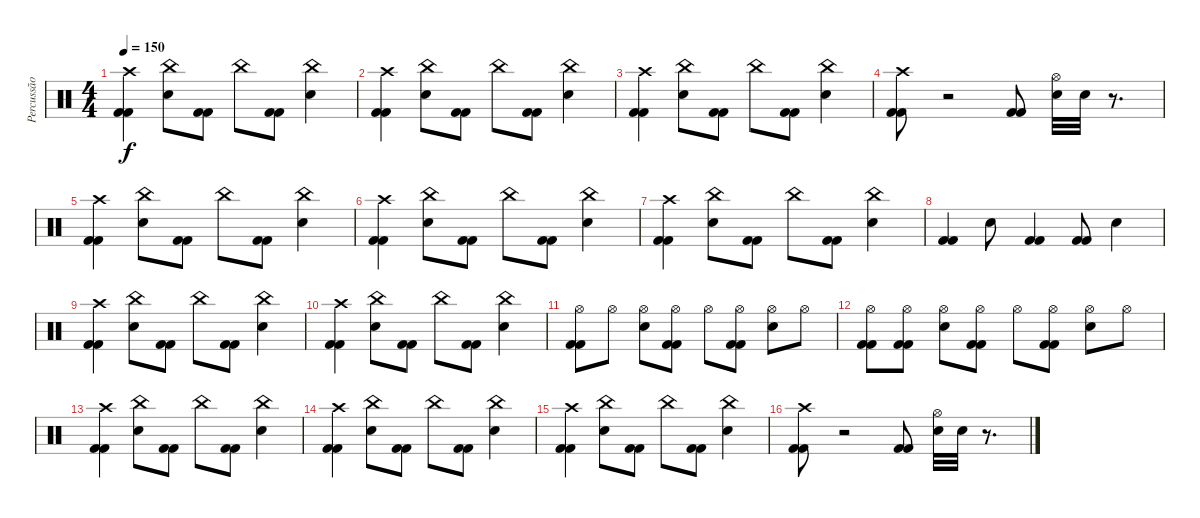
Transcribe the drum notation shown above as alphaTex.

\track ("Percussão" "Percussão") {instrument percussion}
\staff {score}
\articulation defaults
\ts (4 4)
\tempo 150
\clef neutral
\ks c
("Crash high (hit)" "Kick (hit) 2" "Kick (hit) 2").4{dy f} ("China (hit)" "Electric Snare (hit)").8 ("Kick (hit) 2" "Kick (hit) 2").8 "China (hit)".8 ("Kick (hit) 2" "Kick (hit) 2").8 ("China (hit)" "Electric Snare (hit)").4 |
("Crash high (hit)" "Kick (hit) 2" "Kick (hit) 2").4 ("China (hit)" "Electric Snare (hit)").8 ("Kick (hit) 2" "Kick (hit) 2").8 "China (hit)".8 ("Kick (hit) 2" "Kick (hit) 2").8 ("China (hit)" "Electric Snare (hit)").4 |
("Crash high (hit)" "Kick (hit) 2" "Kick (hit) 2").4 ("China (hit)" "Electric Snare (hit)").8 ("Kick (hit) 2" "Kick (hit) 2").8 "China (hit)".8 ("Kick (hit) 2" "Kick (hit) 2").8 ("China (hit)" "Electric Snare (hit)").4 |
("Crash high (hit)" "Kick (hit) 2" "Kick (hit) 2").8 r.2 ("Kick (hit) 2" "Kick (hit) 2").8 ("Hi-Hat (open)" "Electric Snare (hit)").32 "Electric Snare (hit)".32 r.8{d} |
("Crash high (hit)" "Kick (hit) 2" "Kick (hit) 2").4 ("China (hit)" "Electric Snare (hit)").8 ("Kick (hit) 2" "Kick (hit) 2").8 "China (hit)".8 ("Kick (hit) 2" "Kick (hit) 2").8 ("China (hit)" "Electric Snare (hit)").4 |
("Crash high (hit)" "Kick (hit) 2" "Kick (hit) 2").4 ("China (hit)" "Electric Snare (hit)").8 ("Kick (hit) 2" "Kick (hit) 2").8 "China (hit)".8 ("Kick (hit) 2" "Kick (hit) 2").8 ("China (hit)" "Electric Snare (hit)").4 |
("Crash high (hit)" "Kick (hit) 2" "Kick (hit) 2").4 ("China (hit)" "Electric Snare (hit)").8 ("Kick (hit) 2" "Kick (hit) 2").8 "China (hit)".8 ("Kick (hit) 2" "Kick (hit) 2").8 ("China (hit)" "Electric Snare (hit)").4 |
("Kick (hit) 2" "Kick (hit) 2").4 "Electric Snare (hit)".8 ("Kick (hit) 2" "Kick (hit) 2").4 ("Kick (hit) 2" "Kick (hit) 2").8 "Electric Snare (hit)".4 |
("Crash high (hit)" "Kick (hit) 2" "Kick (hit) 2").4 ("China (hit)" "Electric Snare (hit)").8 ("Kick (hit) 2" "Kick (hit) 2").8 "China (hit)".8 ("Kick (hit) 2" "Kick (hit) 2").8 ("China (hit)" "Electric Snare (hit)").4 |
("Crash high (hit)" "Kick (hit) 2" "Kick (hit) 2").4 ("China (hit)" "Electric Snare (hit)").8 ("Kick (hit) 2" "Kick (hit) 2").8 "China (hit)".8 ("Kick (hit) 2" "Kick (hit) 2").8 ("China (hit)" "Electric Snare (hit)").4 |
("Hi-Hat (open)" "Kick (hit) 2" "Kick (hit) 2").8 "Hi-Hat (open)".8 ("Hi-Hat (open)" "Electric Snare (hit)").8 ("Hi-Hat (open)" "Kick (hit) 2" "Kick (hit) 2").8 "Hi-Hat (open)".8 ("Hi-Hat (open)" "Kick (hit) 2" "Kick (hit) 2").8 ("Hi-Hat (open)" "Electric Snare (hit)").8 "Hi-Hat (open)".8 |
("Hi-Hat (open)" "Kick (hit) 2" "Kick (hit) 2").8 ("Hi-Hat (open)" "Kick (hit) 2" "Kick (hit) 2").8 ("Hi-Hat (open)" "Electric Snare (hit)").8 ("Hi-Hat (open)" "Kick (hit) 2" "Kick (hit) 2").8 "Hi-Hat (open)".8 ("Hi-Hat (open)" "Kick (hit) 2" "Kick (hit) 2").8 ("Hi-Hat (open)" "Electric Snare (hit)").8 "Hi-Hat (open)".8 |
("Crash high (hit)" "Kick (hit) 2" "Kick (hit) 2").4 ("China (hit)" "Electric Snare (hit)").8 ("Kick (hit) 2" "Kick (hit) 2").8 "China (hit)".8 ("Kick (hit) 2" "Kick (hit) 2").8 ("China (hit)" "Electric Snare (hit)").4 |
("Crash high (hit)" "Kick (hit) 2" "Kick (hit) 2").4 ("China (hit)" "Electric Snare (hit)").8 ("Kick (hit) 2" "Kick (hit) 2").8 "China (hit)".8 ("Kick (hit) 2" "Kick (hit) 2").8 ("China (hit)" "Electric Snare (hit)").4 |
("Crash high (hit)" "Kick (hit) 2" "Kick (hit) 2").4 ("China (hit)" "Electric Snare (hit)").8 ("Kick (hit) 2" "Kick (hit) 2").8 "China (hit)".8 ("Kick (hit) 2" "Kick (hit) 2").8 ("China (hit)" "Electric Snare (hit)").4 |
("Crash high (hit)" "Kick (hit) 2" "Kick (hit) 2").8 r.2 ("Kick (hit) 2" "Kick (hit) 2").8 ("Hi-Hat (open)" "Electric Snare (hit)").32 "Electric Snare (hit)".32 r.8{d}
